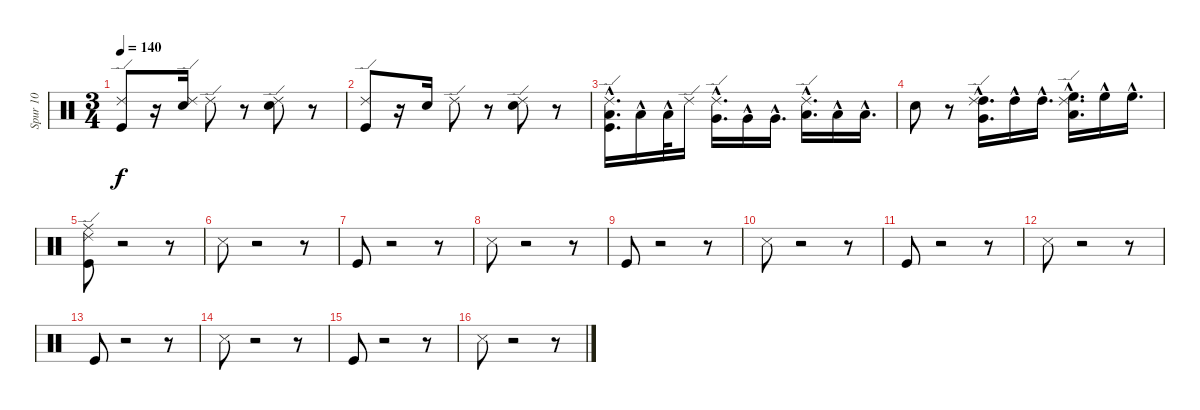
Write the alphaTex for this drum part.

\track ("Spur 10" "Spur 10") {instrument percussion}
\staff {score}
\articulation defaults
\ts (3 4)
\tempo 140
\clef neutral
\ks c
("Ride (edge) 2" "Kick (hit)").8{dy f} r.16 ("Snare (hit) 2" "Ride (edge) 2").16 "Ride (edge) 2".8 r.8 ("Snare (hit) 2" "Ride (edge) 2").8 r.8 |
("Ride (edge) 2" "Kick (hit)").8 r.16 "Snare (hit) 2".16 "Ride (edge) 2".8 r.8 ("Snare (hit) 2" "Ride (edge) 2").8 r.8 |
("Low Tom (hit)"{hac} "Ride (edge) 2" "Kick (hit)").16{d} "Low Tom (hit)"{hac}.16 "Low Tom (hit)"{hac}.32 "Ride (edge) 2".16 ("Very Low Tom (hit)"{hac} "Ride (edge) 2").16{d} "Very Low Tom (hit)"{hac}.16 "Very Low Tom (hit)"{hac}.16{d} ("Low Floor Tom (hit)"{hac} "Ride (edge) 2").16{d} "Low Floor Tom (hit)"{hac}.16 "Low Floor Tom (hit)"{hac}.16{d} |
"Snare (hit) 2".8 r.8 ("High Tom (hit)"{hac} "Very Low Tom (hit)" "Ride (edge) 2").16{d} "High Tom (hit)"{hac}.16 "High Tom (hit)"{hac}.16{d} ("High Floor Tom (hit)"{hac} "Low Floor Tom (hit)" "Ride (edge) 2").16{d} "High Floor Tom (hit)"{hac}.16 "High Floor Tom (hit)"{hac}.16{d} |
("Ride (middle)" "Ride (edge) 2" "Kick (hit)").8 r.2 r.8 |
"Snare (side stick) 3".8 r.2 r.8 |
"Kick (hit)".8 r.2 r.8 |
"Snare (side stick) 3".8 r.2 r.8 |
"Kick (hit)".8 r.2 r.8 |
"Snare (side stick) 3".8 r.2 r.8 |
"Kick (hit)".8 r.2 r.8 |
"Snare (side stick) 3".8 r.2 r.8 |
"Kick (hit)".8 r.2 r.8 |
"Snare (side stick) 3".8 r.2 r.8 |
"Kick (hit)".8 r.2 r.8 |
"Snare (side stick) 3".8 r.2 r.8
